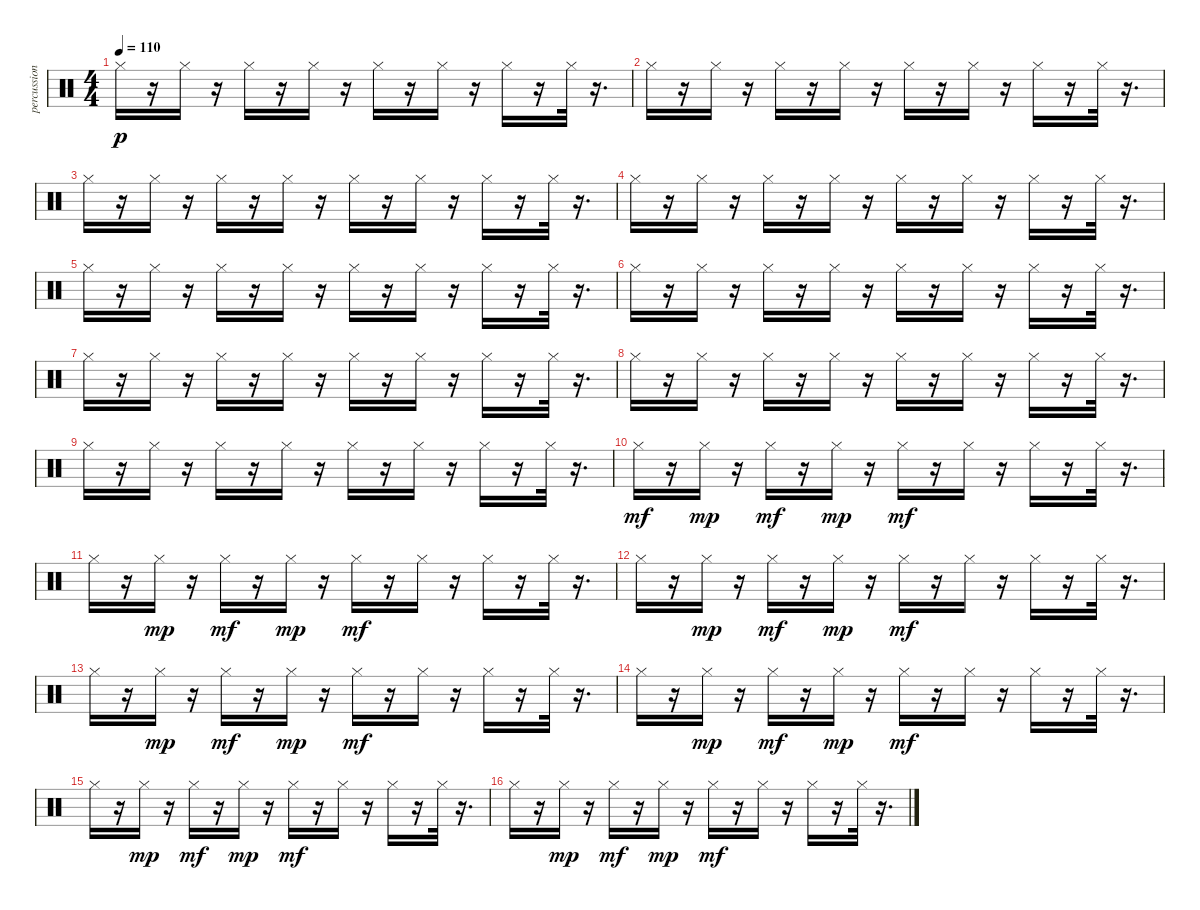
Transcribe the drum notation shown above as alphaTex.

\track ("percussions 2" "percussion") {instrument percussion}
\staff {score}
\articulation defaults
\ts (4 4)
\tempo 110
\clef neutral
\ks c "Hi-Hat (closed)".16{dy p}
r.16 "Hi-Hat (closed)".16 r.16 "Hi-Hat (closed)".16 r.16 "Hi-Hat (closed)".16 r.16 "Hi-Hat (closed)".16 r.16 "Hi-Hat (closed)".16 r.16 "Hi-Hat (closed)".16 r.16 "Hi-Hat (closed)".32 r.16{d} |
"Hi-Hat (closed)".16 r.16 "Hi-Hat (closed)".16 r.16 "Hi-Hat (closed)".16 r.16 "Hi-Hat (closed)".16 r.16 "Hi-Hat (closed)".16 r.16 "Hi-Hat (closed)".16 r.16 "Hi-Hat (closed)".16 r.16 "Hi-Hat (closed)".32 r.16{d} |
"Hi-Hat (closed)".16 r.16 "Hi-Hat (closed)".16 r.16 "Hi-Hat (closed)".16 r.16 "Hi-Hat (closed)".16 r.16 "Hi-Hat (closed)".16 r.16 "Hi-Hat (closed)".16 r.16 "Hi-Hat (closed)".16 r.16 "Hi-Hat (closed)".32 r.16{d} |
"Hi-Hat (closed)".16 r.16 "Hi-Hat (closed)".16 r.16 "Hi-Hat (closed)".16 r.16 "Hi-Hat (closed)".16 r.16 "Hi-Hat (closed)".16 r.16 "Hi-Hat (closed)".16 r.16 "Hi-Hat (closed)".16 r.16 "Hi-Hat (closed)".32 r.16{d} |
"Hi-Hat (closed)".16 r.16 "Hi-Hat (closed)".16 r.16 "Hi-Hat (closed)".16 r.16 "Hi-Hat (closed)".16 r.16 "Hi-Hat (closed)".16 r.16 "Hi-Hat (closed)".16 r.16 "Hi-Hat (closed)".16 r.16 "Hi-Hat (closed)".32 r.16{d} |
"Hi-Hat (closed)".16 r.16 "Hi-Hat (closed)".16 r.16 "Hi-Hat (closed)".16 r.16 "Hi-Hat (closed)".16 r.16 "Hi-Hat (closed)".16 r.16 "Hi-Hat (closed)".16 r.16 "Hi-Hat (closed)".16 r.16 "Hi-Hat (closed)".32 r.16{d} |
"Hi-Hat (closed)".16 r.16 "Hi-Hat (closed)".16 r.16 "Hi-Hat (closed)".16 r.16 "Hi-Hat (closed)".16 r.16 "Hi-Hat (closed)".16 r.16 "Hi-Hat (closed)".16 r.16 "Hi-Hat (closed)".16 r.16 "Hi-Hat (closed)".32 r.16{d} |
"Hi-Hat (closed)".16 r.16 "Hi-Hat (closed)".16 r.16 "Hi-Hat (closed)".16 r.16 "Hi-Hat (closed)".16 r.16 "Hi-Hat (closed)".16 r.16 "Hi-Hat (closed)".16 r.16 "Hi-Hat (closed)".16 r.16 "Hi-Hat (closed)".32 r.16{d} |
"Hi-Hat (closed)".16 r.16 "Hi-Hat (closed)".16 r.16 "Hi-Hat (closed)".16 r.16 "Hi-Hat (closed)".16 r.16 "Hi-Hat (closed)".16 r.16 "Hi-Hat (closed)".16 r.16 "Hi-Hat (closed)".16 r.16 "Hi-Hat (closed)".32 r.16{d} |
"Hi-Hat (closed)".16{dy mf} r.16 "Hi-Hat (closed)".16{dy mp} r.16 "Hi-Hat (closed)".16{dy mf} r.16 "Hi-Hat (closed)".16{dy mp} r.16 "Hi-Hat (closed)".16{dy mf} r.16 "Hi-Hat (closed)".16 r.16 "Hi-Hat (closed)".16 r.16 "Hi-Hat (closed)".32 r.16{d} |
"Hi-Hat (closed)".16 r.16 "Hi-Hat (closed)".16{dy mp} r.16 "Hi-Hat (closed)".16{dy mf} r.16 "Hi-Hat (closed)".16{dy mp} r.16 "Hi-Hat (closed)".16{dy mf} r.16 "Hi-Hat (closed)".16 r.16 "Hi-Hat (closed)".16 r.16 "Hi-Hat (closed)".32 r.16{d} |
"Hi-Hat (closed)".16 r.16 "Hi-Hat (closed)".16{dy mp} r.16 "Hi-Hat (closed)".16{dy mf} r.16 "Hi-Hat (closed)".16{dy mp} r.16 "Hi-Hat (closed)".16{dy mf} r.16 "Hi-Hat (closed)".16 r.16 "Hi-Hat (closed)".16 r.16 "Hi-Hat (closed)".32 r.16{d} |
"Hi-Hat (closed)".16 r.16 "Hi-Hat (closed)".16{dy mp} r.16 "Hi-Hat (closed)".16{dy mf} r.16 "Hi-Hat (closed)".16{dy mp} r.16 "Hi-Hat (closed)".16{dy mf} r.16 "Hi-Hat (closed)".16 r.16 "Hi-Hat (closed)".16 r.16 "Hi-Hat (closed)".32 r.16{d} |
"Hi-Hat (closed)".16 r.16 "Hi-Hat (closed)".16{dy mp} r.16 "Hi-Hat (closed)".16{dy mf} r.16 "Hi-Hat (closed)".16{dy mp} r.16 "Hi-Hat (closed)".16{dy mf} r.16 "Hi-Hat (closed)".16 r.16 "Hi-Hat (closed)".16 r.16 "Hi-Hat (closed)".32 r.16{d} |
"Hi-Hat (closed)".16 r.16 "Hi-Hat (closed)".16{dy mp} r.16 "Hi-Hat (closed)".16{dy mf} r.16 "Hi-Hat (closed)".16{dy mp} r.16 "Hi-Hat (closed)".16{dy mf} r.16 "Hi-Hat (closed)".16 r.16 "Hi-Hat (closed)".16 r.16 "Hi-Hat (closed)".32 r.16{d} |
"Hi-Hat (closed)".16 r.16 "Hi-Hat (closed)".16{dy mp} r.16 "Hi-Hat (closed)".16{dy mf} r.16 "Hi-Hat (closed)".16{dy mp} r.16 "Hi-Hat (closed)".16{dy mf} r.16 "Hi-Hat (closed)".16 r.16 "Hi-Hat (closed)".16 r.16 "Hi-Hat (closed)".32 r.16{d}
